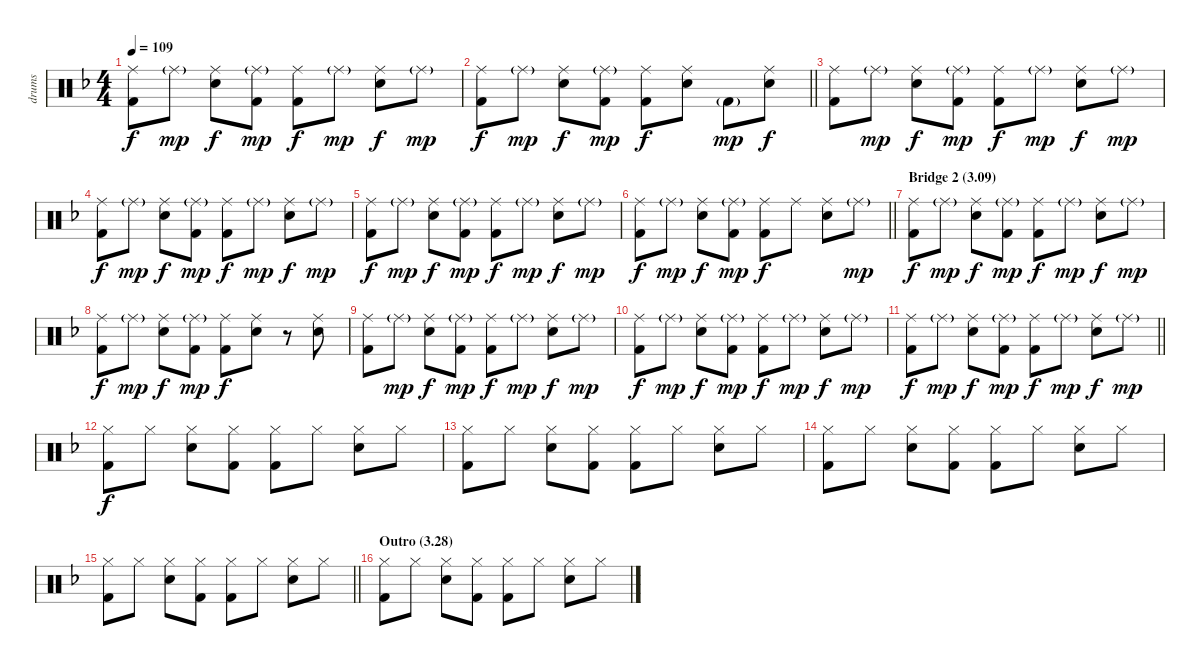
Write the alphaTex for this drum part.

\track ("drums" "drums") {instrument percussion}
\staff {score}
\articulation defaults
\ts (4 4)
\tempo 109
\clef neutral
\ks f
("Ride (middle)" "Kick (hit) 2").8{dy f} "Ride (middle)"{g}.8{dy mp} ("Ride (middle)" "Electric Snare (hit)").8{dy f} ("Ride (middle)"{g} "Kick (hit) 2").8{dy mp} ("Ride (middle)" "Kick (hit) 2").8{dy f} "Ride (middle)"{g}.8{dy mp} ("Ride (middle)" "Electric Snare (hit)").8{dy f} "Ride (middle)"{g}.8{dy mp} |
\barLineRight lightlight
("Ride (middle)" "Kick (hit) 2").8{dy f} "Ride (middle)"{g}.8{dy mp} ("Ride (middle)" "Electric Snare (hit)").8{dy f} ("Ride (middle)"{g} "Kick (hit) 2").8{dy mp} ("Ride (middle)" "Kick (hit) 2").8{dy f} ("Ride (middle)" "Electric Snare (hit)").8 "Kick (hit) 2"{g}.8{dy mp} ("Ride (middle)" "Electric Snare (hit)").8{dy f} |
("Ride (middle)" "Kick (hit) 2").8 "Ride (middle)"{g}.8{dy mp} ("Ride (middle)" "Electric Snare (hit)").8{dy f} ("Ride (middle)"{g} "Kick (hit) 2").8{dy mp} ("Ride (middle)" "Kick (hit) 2").8{dy f} "Ride (middle)"{g}.8{dy mp} ("Ride (middle)" "Electric Snare (hit)").8{dy f} "Ride (middle)"{g}.8{dy mp} |
("Ride (middle)" "Kick (hit) 2").8{dy f} "Ride (middle)"{g}.8{dy mp} ("Ride (middle)" "Electric Snare (hit)").8{dy f} ("Ride (middle)"{g} "Kick (hit) 2").8{dy mp} ("Ride (middle)" "Kick (hit) 2").8{dy f} "Ride (middle)"{g}.8{dy mp} ("Ride (middle)" "Electric Snare (hit)").8{dy f} "Ride (middle)"{g}.8{dy mp} |
("Ride (middle)" "Kick (hit) 2").8{dy f} "Ride (middle)"{g}.8{dy mp} ("Ride (middle)" "Electric Snare (hit)").8{dy f} ("Ride (middle)"{g} "Kick (hit) 2").8{dy mp} ("Ride (middle)" "Kick (hit) 2").8{dy f} "Ride (middle)"{g}.8{dy mp} ("Ride (middle)" "Electric Snare (hit)").8{dy f} "Ride (middle)"{g}.8{dy mp} |
\barLineRight lightlight
("Ride (middle)" "Kick (hit) 2").8{dy f} "Ride (middle)"{g}.8{dy mp} ("Ride (middle)" "Electric Snare (hit)").8{dy f} ("Ride (middle)"{g} "Kick (hit) 2").8{dy mp} ("Ride (middle)" "Kick (hit) 2").8{dy f} "Ride (middle)".8 ("Ride (middle)" "Electric Snare (hit)").8 "Ride (middle)"{g}.8{dy mp} |
\section ("" "Bridge 2 (3.09)")
("Ride (middle)" "Kick (hit) 2").8{dy f} "Ride (middle)"{g}.8{dy mp} ("Ride (middle)" "Electric Snare (hit)").8{dy f} ("Ride (middle)"{g} "Kick (hit) 2").8{dy mp} ("Ride (middle)" "Kick (hit) 2").8{dy f} "Ride (middle)"{g}.8{dy mp} ("Ride (middle)" "Electric Snare (hit)").8{dy f} "Ride (middle)"{g}.8{dy mp} |
("Ride (middle)" "Kick (hit) 2").8{dy f} "Ride (middle)"{g}.8{dy mp} ("Ride (middle)" "Electric Snare (hit)").8{dy f} ("Ride (middle)"{g} "Kick (hit) 2").8{dy mp} ("Ride (middle)" "Kick (hit) 2").8{dy f} ("Ride (middle)" "Electric Snare (hit)").8 r.8 ("Ride (middle)" "Electric Snare (hit)").8 |
("Ride (middle)" "Kick (hit) 2").8 "Ride (middle)"{g}.8{dy mp} ("Ride (middle)" "Electric Snare (hit)").8{dy f} ("Ride (middle)"{g} "Kick (hit) 2").8{dy mp} ("Ride (middle)" "Kick (hit) 2").8{dy f} "Ride (middle)"{g}.8{dy mp} ("Ride (middle)" "Electric Snare (hit)").8{dy f} "Ride (middle)"{g}.8{dy mp} |
("Ride (middle)" "Kick (hit) 2").8{dy f} "Ride (middle)"{g}.8{dy mp} ("Ride (middle)" "Electric Snare (hit)").8{dy f} ("Ride (middle)"{g} "Kick (hit) 2").8{dy mp} ("Ride (middle)" "Kick (hit) 2").8{dy f} "Ride (middle)"{g}.8{dy mp} ("Ride (middle)" "Electric Snare (hit)").8{dy f} "Ride (middle)"{g}.8{dy mp} |
\barLineRight lightlight
("Ride (middle)" "Kick (hit) 2").8{dy f} "Ride (middle)"{g}.8{dy mp} ("Ride (middle)" "Electric Snare (hit)").8{dy f} ("Ride (middle)"{g} "Kick (hit) 2").8{dy mp} ("Ride (middle)" "Kick (hit) 2").8{dy f} "Ride (middle)"{g}.8{dy mp} ("Ride (middle)" "Electric Snare (hit)").8{dy f} "Ride (middle)"{g}.8{dy mp} |
("Hi-Hat (closed)" "Kick (hit) 2").8{dy f} "Hi-Hat (closed)".8 ("Hi-Hat (closed)" "Electric Snare (hit)").8 ("Hi-Hat (closed)" "Kick (hit) 2").8 ("Hi-Hat (closed)" "Kick (hit) 2").8 "Hi-Hat (closed)".8 ("Hi-Hat (closed)" "Electric Snare (hit)").8 "Hi-Hat (closed)".8 |
("Hi-Hat (closed)" "Kick (hit) 2").8 "Hi-Hat (closed)".8 ("Hi-Hat (closed)" "Electric Snare (hit)").8 ("Hi-Hat (closed)" "Kick (hit) 2").8 ("Hi-Hat (closed)" "Kick (hit) 2").8 "Hi-Hat (closed)".8 ("Hi-Hat (closed)" "Electric Snare (hit)").8 "Hi-Hat (closed)".8 |
("Hi-Hat (closed)" "Kick (hit) 2").8 "Hi-Hat (closed)".8 ("Hi-Hat (closed)" "Electric Snare (hit)").8 ("Hi-Hat (closed)" "Kick (hit) 2").8 ("Hi-Hat (closed)" "Kick (hit) 2").8 "Hi-Hat (closed)".8 ("Hi-Hat (closed)" "Electric Snare (hit)").8 "Hi-Hat (closed)".8 |
\barLineRight lightlight
("Hi-Hat (closed)" "Kick (hit) 2").8 "Hi-Hat (closed)".8 ("Hi-Hat (closed)" "Electric Snare (hit)").8 ("Hi-Hat (closed)" "Kick (hit) 2").8 ("Hi-Hat (closed)" "Kick (hit) 2").8 "Hi-Hat (closed)".8 ("Hi-Hat (closed)" "Electric Snare (hit)").8 "Hi-Hat (closed)".8 |
\section ("" "Outro (3.28)")
("Hi-Hat (closed)" "Kick (hit) 2").8 "Hi-Hat (closed)".8 ("Hi-Hat (closed)" "Electric Snare (hit)").8 ("Hi-Hat (closed)" "Kick (hit) 2").8 ("Hi-Hat (closed)" "Kick (hit) 2").8 "Hi-Hat (closed)".8 ("Hi-Hat (closed)" "Electric Snare (hit)").8 "Hi-Hat (closed)".8
